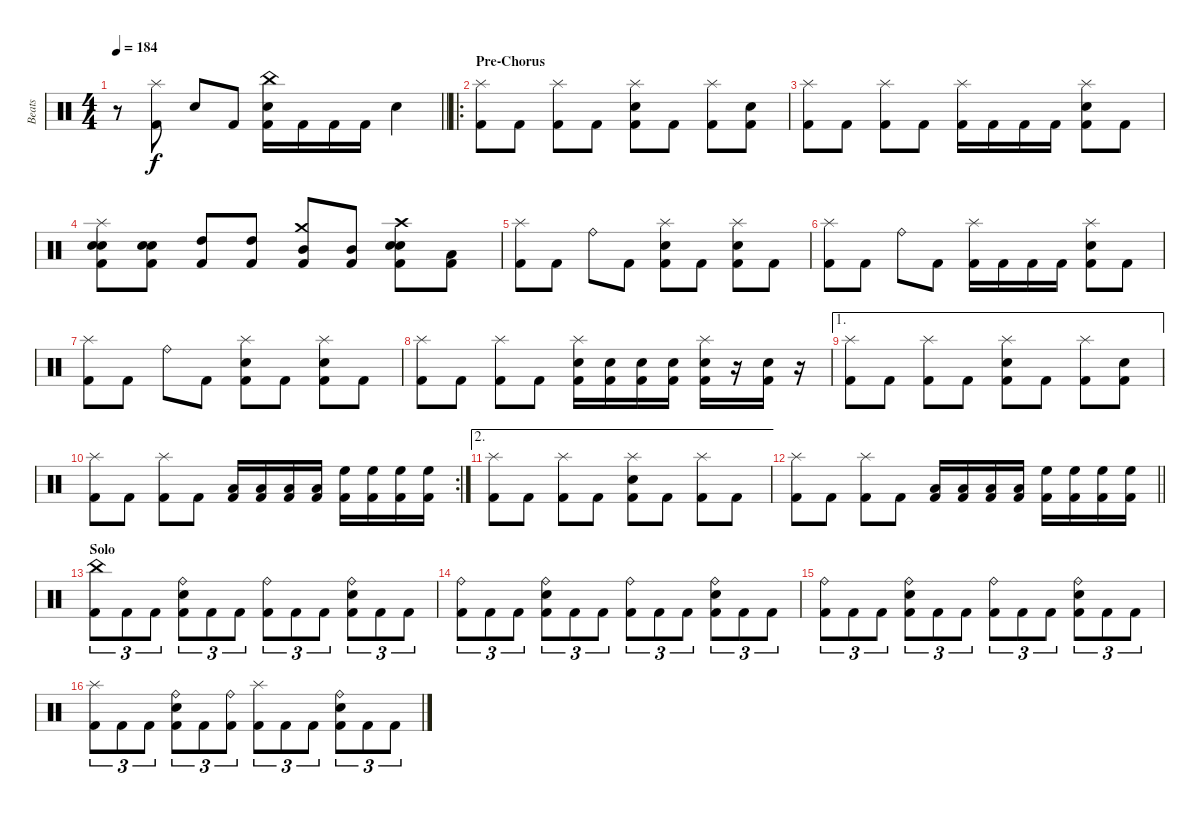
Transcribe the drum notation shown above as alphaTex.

\track ("Beats" "Beats") {instrument percussion}
\staff {score}
\articulation defaults
\ts (4 4)
\tempo 184
\clef neutral
\barLineRight lightlight
\ks c
r.8{dy f} ("Splash (hit)" "Kick (hit) 2").8 "Electric Snare (hit)".8 "Kick (hit) 2".8 ("China (hit)" "Electric Snare (hit)" "Kick (hit) 2").16 "Kick (hit) 2".16 "Kick (hit) 2".16 "Kick (hit) 2".16 "Electric Snare (hit)".4 |
\ro
\section ("" "Pre-Chorus")
("Splash (hit)" "Kick (hit) 2").8 "Kick (hit) 2".8 ("Splash (hit)" "Kick (hit) 2").8 "Kick (hit) 2".8 ("Splash (hit)" "Electric Snare (hit)" "Kick (hit) 2").8 "Kick (hit) 2".8 ("Splash (hit)" "Kick (hit) 2").8 ("Electric Snare (hit)" "Kick (hit) 2").8 |
("Splash (hit)" "Kick (hit) 2").8 "Kick (hit) 2".8 ("Splash (hit)" "Kick (hit) 2").8 "Kick (hit) 2".8 ("Splash (hit)" "Kick (hit) 2").16 "Kick (hit) 2".16 "Kick (hit) 2".16 "Kick (hit) 2".16 ("Splash (hit)" "Electric Snare (hit)" "Kick (hit) 2").8 "Kick (hit) 2".8 |
("Splash (hit)" "Electric Snare (hit)" "Electric Snare (hit)" "Kick (hit) 2").8{bd 60} ("Electric Snare (hit)" "Electric Snare (hit)" "Kick (hit) 2").8{bd 60} ("High Tom (hit)" "Kick (hit) 2").8 ("High Tom (hit)" "Kick (hit) 2").8 ("Crash medium (hit)" "Mid Tom (hit)" "Kick (hit) 2").8 ("Mid Tom (hit)" "Kick (hit) 2").8 ("Crash high (hit)" "Electric Snare (hit)" "Electric Snare (hit)" "Kick (hit) 2").8 ("Low Tom (hit)" "Kick (hit) 2").8 |
("Splash (hit)" "Kick (hit) 2").8 "Kick (hit) 2".8 "Ride (bell)".8 "Kick (hit) 2".8 ("Splash (hit)" "Electric Snare (hit)" "Kick (hit) 2").8 "Kick (hit) 2".8 ("Splash (hit)" "Electric Snare (hit)" "Kick (hit) 2").8 "Kick (hit) 2".8 |
("Splash (hit)" "Kick (hit) 2").8 "Kick (hit) 2".8 "Ride (bell)".8 "Kick (hit) 2".8 ("Splash (hit)" "Kick (hit) 2").16 "Kick (hit) 2".16 "Kick (hit) 2".16 "Kick (hit) 2".16 ("Splash (hit)" "Electric Snare (hit)" "Kick (hit) 2").8 "Kick (hit) 2".8 |
("Splash (hit)" "Kick (hit) 2").8 "Kick (hit) 2".8 "Ride (bell)".8 "Kick (hit) 2".8 ("Splash (hit)" "Electric Snare (hit)" "Kick (hit) 2").8 "Kick (hit) 2".8 ("Splash (hit)" "Electric Snare (hit)" "Kick (hit) 2").8 "Kick (hit) 2".8 |
("Splash (hit)" "Kick (hit) 2").8 "Kick (hit) 2".8 ("Splash (hit)" "Kick (hit) 2").8 "Kick (hit) 2".8 ("Splash (hit)" "Electric Snare (hit)" "Kick (hit) 2").16 ("Electric Snare (hit)" "Kick (hit) 2").16 ("Electric Snare (hit)" "Kick (hit) 2").16 ("Electric Snare (hit)" "Kick (hit) 2").16 ("Splash (hit)" "Electric Snare (hit)" "Kick (hit) 2").16 r.16 ("Electric Snare (hit)" "Kick (hit) 2").16 r.16 |
\ae 1
("Splash (hit)" "Kick (hit) 2").8 "Kick (hit) 2".8 ("Splash (hit)" "Kick (hit) 2").8 "Kick (hit) 2".8 ("Splash (hit)" "Electric Snare (hit)" "Kick (hit) 2").8 "Kick (hit) 2".8 ("Splash (hit)" "Kick (hit) 2").8 ("Electric Snare (hit)" "Kick (hit) 2").8 |
\rc 2
("Splash (hit)" "Kick (hit) 2").8 "Kick (hit) 2".8 ("Splash (hit)" "Kick (hit) 2").8 "Kick (hit) 2".8 ("Low Floor Tom (hit)" "Kick (hit) 2").16 ("Low Floor Tom (hit)" "Kick (hit) 2").16 ("Low Floor Tom (hit)" "Kick (hit) 2").16 ("Low Floor Tom (hit)" "Kick (hit) 2").16 ("High Floor Tom (hit)" "Kick (hit) 2").16 ("High Floor Tom (hit)" "Kick (hit) 2").16 ("High Floor Tom (hit)" "Kick (hit) 2").16 ("High Floor Tom (hit)" "Kick (hit) 2").16 |
\ae 2
("Splash (hit)" "Kick (hit) 2").8 "Kick (hit) 2".8 ("Splash (hit)" "Kick (hit) 2").8 "Kick (hit) 2".8 ("Splash (hit)" "Electric Snare (hit)" "Kick (hit) 2").8 "Kick (hit) 2".8 ("Splash (hit)" "Kick (hit) 2").8 "Kick (hit) 2".8 |
\barLineRight lightlight
("Splash (hit)" "Kick (hit) 2").8 "Kick (hit) 2".8 ("Splash (hit)" "Kick (hit) 2").8 "Kick (hit) 2".8 ("Low Floor Tom (hit)" "Kick (hit) 2").16 ("Low Floor Tom (hit)" "Kick (hit) 2").16 ("Low Floor Tom (hit)" "Kick (hit) 2").16 ("Low Floor Tom (hit)" "Kick (hit) 2").16 ("High Floor Tom (hit)" "Kick (hit) 2").16 ("High Floor Tom (hit)" "Kick (hit) 2").16 ("High Floor Tom (hit)" "Kick (hit) 2").16 ("High Floor Tom (hit)" "Kick (hit) 2").16 |
\section ("" "Solo")
("China (hit)" "Kick (hit) 2").8{tu (3 2)} "Kick (hit) 2".8{tu (3 2)} "Kick (hit) 2".8{tu (3 2)} ("Ride (bell)" "Electric Snare (hit)" "Kick (hit) 2").8{tu (3 2)} "Kick (hit) 2".8{tu (3 2)} "Kick (hit) 2".8{tu (3 2)} ("Ride (bell)" "Kick (hit) 2").8{tu (3 2)} "Kick (hit) 2".8{tu (3 2)} "Kick (hit) 2".8{tu (3 2)} ("Ride (bell)" "Electric Snare (hit)" "Kick (hit) 2").8{tu (3 2)} "Kick (hit) 2".8{tu (3 2)} "Kick (hit) 2".8{tu (3 2)} |
("Ride (bell)" "Kick (hit) 2").8{tu (3 2)} "Kick (hit) 2".8{tu (3 2)} "Kick (hit) 2".8{tu (3 2)} ("Ride (bell)" "Electric Snare (hit)" "Kick (hit) 2").8{tu (3 2)} "Kick (hit) 2".8{tu (3 2)} "Kick (hit) 2".8{tu (3 2)} ("Ride (bell)" "Kick (hit) 2").8{tu (3 2)} "Kick (hit) 2".8{tu (3 2)} "Kick (hit) 2".8{tu (3 2)} ("Ride (bell)" "Electric Snare (hit)" "Kick (hit) 2").8{tu (3 2)} "Kick (hit) 2".8{tu (3 2)} "Kick (hit) 2".8{tu (3 2)} |
("Ride (bell)" "Kick (hit) 2").8{tu (3 2)} "Kick (hit) 2".8{tu (3 2)} "Kick (hit) 2".8{tu (3 2)} ("Ride (bell)" "Electric Snare (hit)" "Kick (hit) 2").8{tu (3 2)} "Kick (hit) 2".8{tu (3 2)} "Kick (hit) 2".8{tu (3 2)} ("Ride (bell)" "Kick (hit) 2").8{tu (3 2)} "Kick (hit) 2".8{tu (3 2)} "Kick (hit) 2".8{tu (3 2)} ("Ride (bell)" "Electric Snare (hit)" "Kick (hit) 2").8{tu (3 2)} "Kick (hit) 2".8{tu (3 2)} "Kick (hit) 2".8{tu (3 2)} |
("Splash (hit)" "Kick (hit) 2").8{tu (3 2)} "Kick (hit) 2".8{tu (3 2)} "Kick (hit) 2".8{tu (3 2)} ("Ride (bell)" "Electric Snare (hit)" "Kick (hit) 2").8{tu (3 2)} "Kick (hit) 2".8{tu (3 2)} ("Ride (bell)" "Kick (hit) 2").8{tu (3 2)} ("Splash (hit)" "Kick (hit) 2").8{tu (3 2)} "Kick (hit) 2".8{tu (3 2)} "Kick (hit) 2".8{tu (3 2)} ("Ride (bell)" "Electric Snare (hit)" "Kick (hit) 2").8{tu (3 2)} "Kick (hit) 2".8{tu (3 2)} "Kick (hit) 2".8{tu (3 2)}
